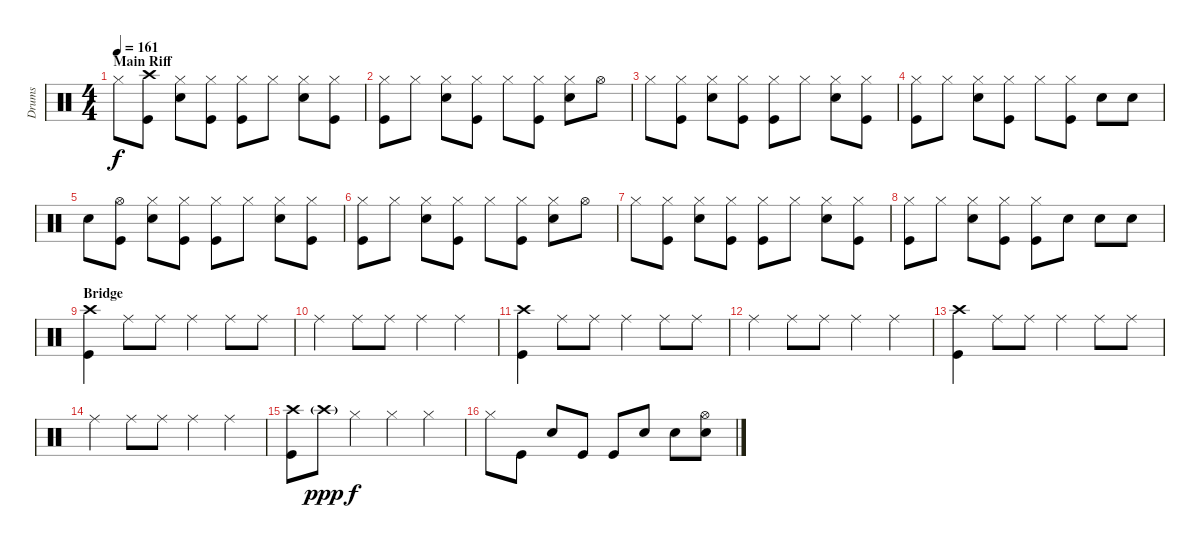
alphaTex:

\track ("Drums" "Drums") {instrument percussion}
\staff {score}
\articulation defaults
\ts (4 4)
\section ("" "Main Riff")
\tempo 161
\clef neutral
\ks c "Hi-Hat (closed)".8{dy f}
("Crash high (hit)" "Kick (hit)").8 ("Hi-Hat (closed)" "Electric Snare (hit)").8 ("Hi-Hat (closed)" "Kick (hit)").8 ("Hi-Hat (closed)" "Kick (hit)").8 "Hi-Hat (closed)".8 ("Hi-Hat (closed)" "Electric Snare (hit)").8 ("Hi-Hat (closed)" "Kick (hit)").8 |
("Hi-Hat (closed)" "Kick (hit)").8 "Hi-Hat (closed)".8 ("Hi-Hat (closed)" "Electric Snare (hit)").8 ("Hi-Hat (closed)" "Kick (hit)").8 "Hi-Hat (closed)".8 ("Hi-Hat (closed)" "Kick (hit)").8 ("Hi-Hat (closed)" "Electric Snare (hit)").8 "Hi-Hat (open)".8 |
"Hi-Hat (closed)".8 ("Hi-Hat (closed)" "Kick (hit)").8 ("Hi-Hat (closed)" "Electric Snare (hit)").8 ("Hi-Hat (closed)" "Kick (hit)").8 ("Hi-Hat (closed)" "Kick (hit)").8 "Hi-Hat (closed)".8 ("Hi-Hat (closed)" "Electric Snare (hit)").8 ("Hi-Hat (closed)" "Kick (hit)").8 |
("Hi-Hat (closed)" "Kick (hit)").8 "Hi-Hat (closed)".8 ("Hi-Hat (closed)" "Electric Snare (hit)").8 ("Hi-Hat (closed)" "Kick (hit)").8 "Hi-Hat (closed)".8 ("Hi-Hat (closed)" "Kick (hit)").8 "Electric Snare (hit)".8 "Electric Snare (hit)".8 |
"Electric Snare (hit)".8 ("Hi-Hat (open)" "Kick (hit)").8 ("Hi-Hat (closed)" "Electric Snare (hit)").8 ("Hi-Hat (closed)" "Kick (hit)").8 ("Hi-Hat (closed)" "Kick (hit)").8 "Hi-Hat (closed)".8 ("Hi-Hat (closed)" "Electric Snare (hit)").8 ("Hi-Hat (closed)" "Kick (hit)").8 |
("Hi-Hat (closed)" "Kick (hit)").8 "Hi-Hat (closed)".8 ("Hi-Hat (closed)" "Electric Snare (hit)").8 ("Hi-Hat (closed)" "Kick (hit)").8 "Hi-Hat (closed)".8 ("Hi-Hat (closed)" "Kick (hit)").8 ("Hi-Hat (closed)" "Electric Snare (hit)").8 "Hi-Hat (open)".8 |
"Hi-Hat (closed)".8 ("Hi-Hat (closed)" "Kick (hit)").8 ("Hi-Hat (closed)" "Electric Snare (hit)").8 ("Hi-Hat (closed)" "Kick (hit)").8 ("Hi-Hat (closed)" "Kick (hit)").8 "Hi-Hat (closed)".8 ("Hi-Hat (closed)" "Electric Snare (hit)").8 ("Hi-Hat (closed)" "Kick (hit)").8 |
("Hi-Hat (closed)" "Kick (hit)").8 "Hi-Hat (closed)".8 ("Hi-Hat (closed)" "Electric Snare (hit)").8 ("Hi-Hat (closed)" "Kick (hit)").8 ("Hi-Hat (closed)" "Kick (hit)").8 "Electric Snare (hit)".8 "Electric Snare (hit)".8 "Electric Snare (hit)".8 |
\section ("" "Bridge")
("Crash high (hit)" "Kick (hit)").4 "Ride (middle)".8 "Ride (middle)".8 "Ride (middle)".4 "Ride (middle)".8 "Ride (middle)".8 |
"Ride (middle)".4 "Ride (middle)".8 "Ride (middle)".8 "Ride (middle)".4 "Ride (middle)".4 |
("Crash high (hit)" "Kick (hit)").4 "Ride (middle)".8 "Ride (middle)".8 "Ride (middle)".4 "Ride (middle)".8 "Ride (middle)".8 |
"Ride (middle)".4 "Ride (middle)".8 "Ride (middle)".8 "Ride (middle)".4 "Ride (middle)".4 |
("Crash high (hit)" "Kick (hit)").4 "Ride (middle)".8 "Ride (middle)".8 "Ride (middle)".4 "Ride (middle)".8 "Ride (middle)".8 |
"Ride (middle)".4 "Ride (middle)".8 "Ride (middle)".8 "Ride (middle)".4 "Ride (middle)".4 |
("Crash high (hit)" "Kick (hit)").8 "Crash high (hit)"{g}.8{dy ppp} "Hi-Hat (closed)".4{dy f} "Hi-Hat (closed)".4 "Hi-Hat (closed)".4 |
"Hi-Hat (closed)".8 "Kick (hit)".8 "Electric Snare (hit)".8 "Kick (hit)".8 "Kick (hit)".8 "Electric Snare (hit)".8 "Electric Snare (hit)".8 ("Hi-Hat (open)" "Electric Snare (hit)").8
